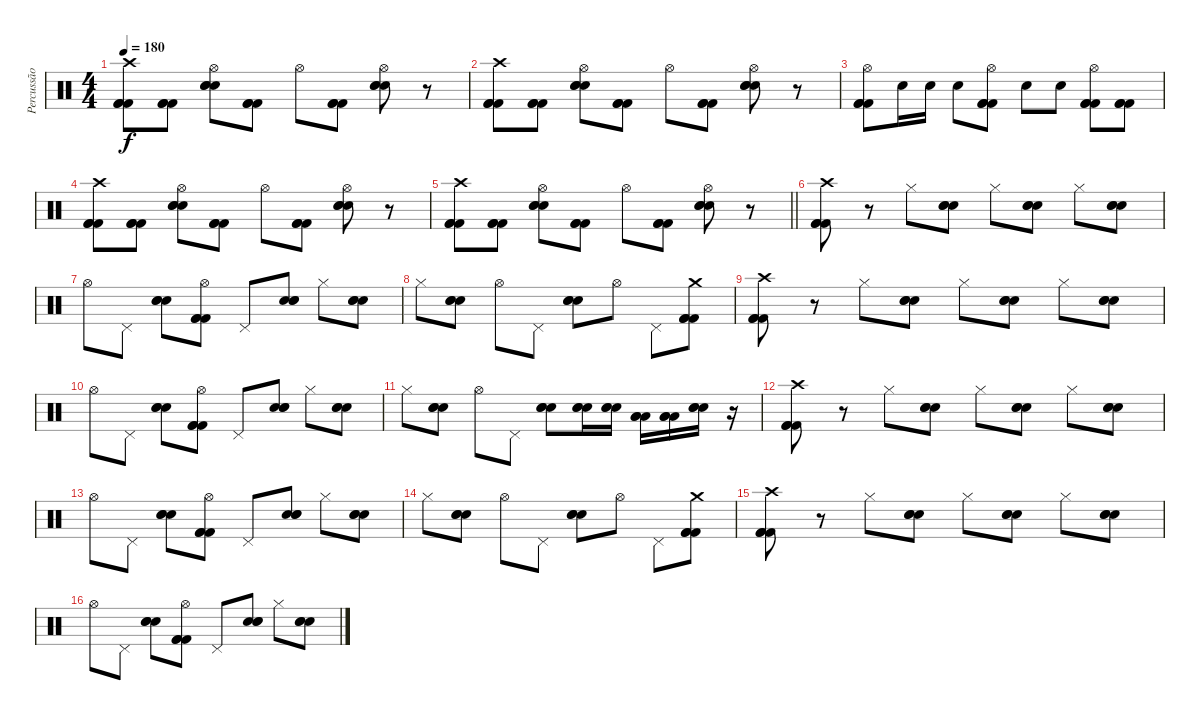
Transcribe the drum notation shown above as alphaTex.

\track ("Percussão" "Percussão") {instrument percussion}
\staff {score}
\articulation defaults
\ts (4 4)
\tempo 180
\clef neutral
\ks c
("Crash high (hit)" "Kick (hit) 2" "Kick (hit) 2" "Kick (hit) 2").8{dy f} ("Kick (hit) 2" "Kick (hit) 2" "Kick (hit) 2").8 ("Hi-Hat (open)" "Electric Snare (hit)" "Electric Snare (hit)" "Electric Snare (hit)").8 ("Kick (hit) 2" "Kick (hit) 2" "Kick (hit) 2").8 "Hi-Hat (open)".8 ("Kick (hit) 2" "Kick (hit) 2" "Kick (hit) 2").8 ("Hi-Hat (open)" "Electric Snare (hit)" "Electric Snare (hit)" "Electric Snare (hit)").8 r.8 |
("Crash high (hit)" "Kick (hit) 2" "Kick (hit) 2" "Kick (hit) 2").8 ("Kick (hit) 2" "Kick (hit) 2" "Kick (hit) 2").8 ("Hi-Hat (open)" "Electric Snare (hit)" "Electric Snare (hit)" "Electric Snare (hit)").8 ("Kick (hit) 2" "Kick (hit) 2" "Kick (hit) 2").8 "Hi-Hat (open)".8 ("Kick (hit) 2" "Kick (hit) 2" "Kick (hit) 2").8 ("Hi-Hat (open)" "Electric Snare (hit)" "Electric Snare (hit)" "Electric Snare (hit)").8 r.8 |
("Hi-Hat (open)" "Kick (hit) 2" "Kick (hit) 2" "Kick (hit) 2").8 "Electric Snare (hit)".16 "Electric Snare (hit)".16 "Electric Snare (hit)".8 ("Hi-Hat (open)" "Kick (hit) 2" "Kick (hit) 2" "Kick (hit) 2").8 "Electric Snare (hit)".8 "Electric Snare (hit)".8 ("Hi-Hat (open)" "Kick (hit) 2" "Kick (hit) 2" "Kick (hit) 2").8 ("Kick (hit) 2" "Kick (hit) 2" "Kick (hit) 2").8 |
("Crash high (hit)" "Kick (hit) 2" "Kick (hit) 2" "Kick (hit) 2").8 ("Kick (hit) 2" "Kick (hit) 2" "Kick (hit) 2").8 ("Hi-Hat (open)" "Electric Snare (hit)" "Electric Snare (hit)" "Electric Snare (hit)").8 ("Kick (hit) 2" "Kick (hit) 2" "Kick (hit) 2").8 "Hi-Hat (open)".8 ("Kick (hit) 2" "Kick (hit) 2" "Kick (hit) 2").8 ("Hi-Hat (open)" "Electric Snare (hit)" "Electric Snare (hit)" "Electric Snare (hit)").8 r.8 |
\barLineRight lightlight
("Crash high (hit)" "Kick (hit) 2" "Kick (hit) 2" "Kick (hit) 2").8 ("Kick (hit) 2" "Kick (hit) 2" "Kick (hit) 2").8 ("Hi-Hat (open)" "Electric Snare (hit)" "Electric Snare (hit)" "Electric Snare (hit)").8 ("Kick (hit) 2" "Kick (hit) 2" "Kick (hit) 2").8 "Hi-Hat (open)".8 ("Kick (hit) 2" "Kick (hit) 2" "Kick (hit) 2").8 ("Hi-Hat (open)" "Electric Snare (hit)" "Electric Snare (hit)" "Electric Snare (hit)").8 r.8 |
\section ("" "")
("Crash high (hit)" "Kick (hit) 2" "Kick (hit) 2" "Kick (hit) 2").8 r.8 "Hi-Hat (closed)".8 ("Electric Snare (hit)" "Electric Snare (hit)" "Electric Snare (hit)").8 "Hi-Hat (closed)".8 ("Electric Snare (hit)" "Electric Snare (hit)" "Electric Snare (hit)").8 "Hi-Hat (closed)".8 ("Electric Snare (hit)" "Electric Snare (hit)" "Electric Snare (hit)").8 |
"Hi-Hat (open)".8 "Pedal Hi-Hat (hit)".8 ("Electric Snare (hit)" "Electric Snare (hit)" "Electric Snare (hit)").8 ("Hi-Hat (open)" "Kick (hit) 2" "Kick (hit) 2" "Kick (hit) 2").8 "Pedal Hi-Hat (hit)".8 ("Electric Snare (hit)" "Electric Snare (hit)" "Electric Snare (hit)").8 "Hi-Hat (closed)".8 ("Electric Snare (hit)" "Electric Snare (hit)" "Electric Snare (hit)").8 |
"Hi-Hat (closed)".8 ("Electric Snare (hit)" "Electric Snare (hit)" "Electric Snare (hit)").8 "Hi-Hat (open)".8 "Pedal Hi-Hat (hit)".8 ("Electric Snare (hit)" "Electric Snare (hit)" "Electric Snare (hit)").8 "Hi-Hat (open)".8 "Pedal Hi-Hat (hit)".8 ("Crash medium (hit)" "Kick (hit) 2" "Kick (hit) 2" "Kick (hit) 2").8 |
("Crash high (hit)" "Kick (hit) 2" "Kick (hit) 2" "Kick (hit) 2").8 r.8 "Hi-Hat (closed)".8 ("Electric Snare (hit)" "Electric Snare (hit)" "Electric Snare (hit)").8 "Hi-Hat (closed)".8 ("Electric Snare (hit)" "Electric Snare (hit)" "Electric Snare (hit)").8 "Hi-Hat (closed)".8 ("Electric Snare (hit)" "Electric Snare (hit)" "Electric Snare (hit)").8 |
"Hi-Hat (open)".8 "Pedal Hi-Hat (hit)".8 ("Electric Snare (hit)" "Electric Snare (hit)" "Electric Snare (hit)").8 ("Hi-Hat (open)" "Kick (hit) 2" "Kick (hit) 2" "Kick (hit) 2").8 "Pedal Hi-Hat (hit)".8 ("Electric Snare (hit)" "Electric Snare (hit)" "Electric Snare (hit)").8 "Hi-Hat (closed)".8 ("Electric Snare (hit)" "Electric Snare (hit)" "Electric Snare (hit)").8 |
"Hi-Hat (closed)".8 ("Electric Snare (hit)" "Electric Snare (hit)" "Electric Snare (hit)").8 "Hi-Hat (open)".8 "Pedal Hi-Hat (hit)".8 ("Electric Snare (hit)" "Electric Snare (hit)" "Electric Snare (hit)").8 ("Electric Snare (hit)" "Electric Snare (hit)" "Electric Snare (hit)").16 ("Electric Snare (hit)" "Electric Snare (hit)" "Electric Snare (hit)").16 ("Low Tom (hit)" "Low Tom (hit)" "Low Tom (hit)").16 ("Low Tom (hit)" "Low Tom (hit)" "Low Tom (hit)").16 ("Electric Snare (hit)" "Electric Snare (hit)" "Electric Snare (hit)").16 r.16 |
("Crash high (hit)" "Kick (hit) 2" "Kick (hit) 2" "Kick (hit) 2").8 r.8 "Hi-Hat (closed)".8 ("Electric Snare (hit)" "Electric Snare (hit)" "Electric Snare (hit)").8 "Hi-Hat (closed)".8 ("Electric Snare (hit)" "Electric Snare (hit)" "Electric Snare (hit)").8 "Hi-Hat (closed)".8 ("Electric Snare (hit)" "Electric Snare (hit)" "Electric Snare (hit)").8 |
"Hi-Hat (open)".8 "Pedal Hi-Hat (hit)".8 ("Electric Snare (hit)" "Electric Snare (hit)" "Electric Snare (hit)").8 ("Hi-Hat (open)" "Kick (hit) 2" "Kick (hit) 2" "Kick (hit) 2").8 "Pedal Hi-Hat (hit)".8 ("Electric Snare (hit)" "Electric Snare (hit)" "Electric Snare (hit)").8 "Hi-Hat (closed)".8 ("Electric Snare (hit)" "Electric Snare (hit)" "Electric Snare (hit)").8 |
"Hi-Hat (closed)".8 ("Electric Snare (hit)" "Electric Snare (hit)" "Electric Snare (hit)").8 "Hi-Hat (open)".8 "Pedal Hi-Hat (hit)".8 ("Electric Snare (hit)" "Electric Snare (hit)" "Electric Snare (hit)").8 "Hi-Hat (open)".8 "Pedal Hi-Hat (hit)".8 ("Crash medium (hit)" "Kick (hit) 2" "Kick (hit) 2" "Kick (hit) 2").8 |
("Crash high (hit)" "Kick (hit) 2" "Kick (hit) 2" "Kick (hit) 2").8 r.8 "Hi-Hat (closed)".8 ("Electric Snare (hit)" "Electric Snare (hit)" "Electric Snare (hit)").8 "Hi-Hat (closed)".8 ("Electric Snare (hit)" "Electric Snare (hit)" "Electric Snare (hit)").8 "Hi-Hat (closed)".8 ("Electric Snare (hit)" "Electric Snare (hit)" "Electric Snare (hit)").8 |
"Hi-Hat (open)".8 "Pedal Hi-Hat (hit)".8 ("Electric Snare (hit)" "Electric Snare (hit)" "Electric Snare (hit)").8 ("Hi-Hat (open)" "Kick (hit) 2" "Kick (hit) 2" "Kick (hit) 2").8 "Pedal Hi-Hat (hit)".8 ("Electric Snare (hit)" "Electric Snare (hit)" "Electric Snare (hit)").8 "Hi-Hat (closed)".8 ("Electric Snare (hit)" "Electric Snare (hit)" "Electric Snare (hit)").8
